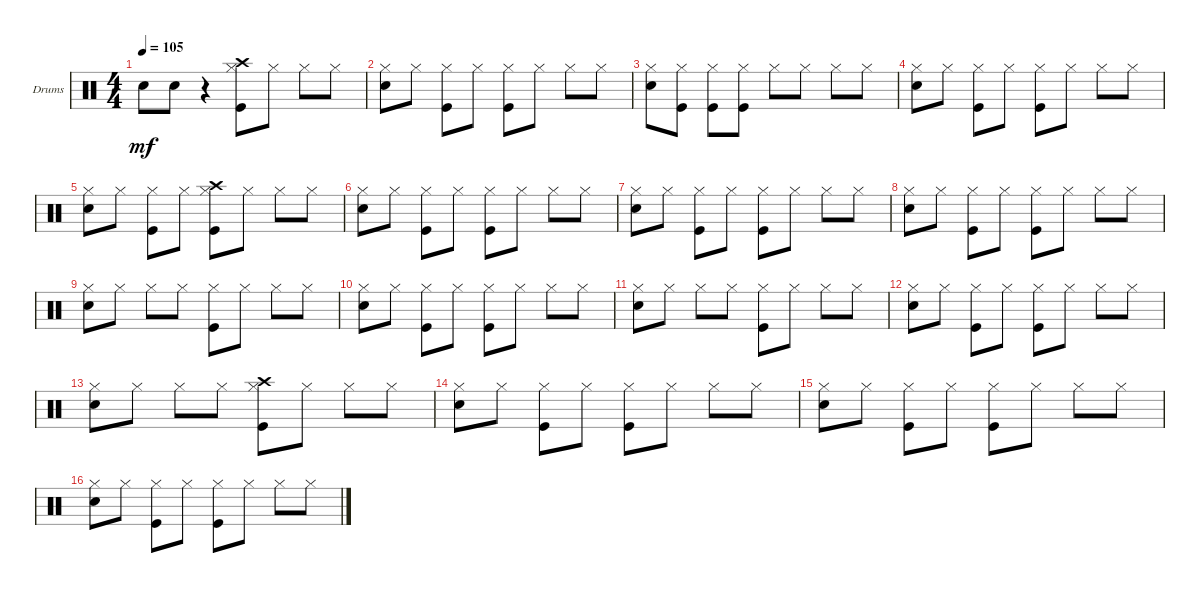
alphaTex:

\defaultSystemsLayout 4
\bracketExtendMode groupsimilarinstruments
\firstSystemTrackNameOrientation horizontal
\otherSystemsTrackNameOrientation horizontal
\track ("Drumkit" "Drums") {instrument percussion}
\staff {score}
\articulation defaults
\ts (4 4)
\tempo 105
\clef neutral
\scale
0.333333
\ks c "Snare (hit) 2".8{dy mf} "Snare (hit) 2".8
r.4 ("Kick (hit)" "Crash high (hit)" "Hi-Hat (closed)").8 "Hi-Hat (closed)".8 "Hi-Hat (closed)".8 "Hi-Hat (closed)".8 |
\scale
0.333333 ("Snare (hit) 2" "Hi-Hat (closed)").8 "Hi-Hat (closed)".8 ("Hi-Hat (closed)" "Kick (hit)").8 "Hi-Hat (closed)".8 ("Hi-Hat (closed)" "Kick (hit)").8 "Hi-Hat (closed)".8 "Hi-Hat (closed)".8 "Hi-Hat (closed)".8 |
\scale
0.333333 ("Hi-Hat (closed)" "Snare (hit) 2").8 ("Hi-Hat (closed)" "Kick (hit)").8 ("Hi-Hat (closed)" "Kick (hit)").8 ("Hi-Hat (closed)" "Kick (hit)").8 "Hi-Hat (closed)".8 "Hi-Hat (closed)".8 "Hi-Hat (closed)".8 "Hi-Hat (closed)".8 |
\scale
0.333333 ("Snare (hit) 2" "Hi-Hat (closed)").8 "Hi-Hat (closed)".8 ("Kick (hit)" "Hi-Hat (closed)").8 "Hi-Hat (closed)".8 ("Kick (hit)" "Hi-Hat (closed)").8 "Hi-Hat (closed)".8 "Hi-Hat (closed)".8 "Hi-Hat (closed)".8 |
\scale
0.333333 ("Snare (hit) 2" "Hi-Hat (closed)").8 "Hi-Hat (closed)".8 ("Hi-Hat (closed)" "Kick (hit)").8 "Hi-Hat (closed)".8 ("Hi-Hat (closed)" "Kick (hit)" "Crash high (hit)").8 "Hi-Hat (closed)".8 "Hi-Hat (closed)".8 "Hi-Hat (closed)".8 |
\scale
0.333333 ("Hi-Hat (closed)" "Snare (hit) 2").8 "Hi-Hat (closed)".8 ("Hi-Hat (closed)" "Kick (hit)").8 "Hi-Hat (closed)".8 ("Kick (hit)" "Hi-Hat (closed)").8 "Hi-Hat (closed)".8 "Hi-Hat (closed)".8 "Hi-Hat (closed)".8 |
\scale
0.333333 ("Snare (hit) 2" "Hi-Hat (closed)").8 "Hi-Hat (closed)".8 ("Kick (hit)" "Hi-Hat (closed)").8 "Hi-Hat (closed)".8 ("Kick (hit)" "Hi-Hat (closed)").8 "Hi-Hat (closed)".8 "Hi-Hat (closed)".8 "Hi-Hat (closed)".8 |
\scale
0.333333 ("Snare (hit) 2" "Hi-Hat (closed)").8 "Hi-Hat (closed)".8 ("Kick (hit)" "Hi-Hat (closed)").8 "Hi-Hat (closed)".8 ("Kick (hit)" "Hi-Hat (closed)").8 "Hi-Hat (closed)".8 "Hi-Hat (closed)".8 "Hi-Hat (closed)".8 |
\scale
0.333333 ("Snare (hit) 2" "Hi-Hat (closed)").8 "Hi-Hat (closed)".8 "Hi-Hat (closed)".8 "Hi-Hat (closed)".8 ("Kick (hit)" "Hi-Hat (closed)").8 "Hi-Hat (closed)".8 "Hi-Hat (closed)".8 "Hi-Hat (closed)".8 |
\scale
0.333333 ("Snare (hit) 2" "Hi-Hat (closed)").8 "Hi-Hat (closed)".8 ("Kick (hit)" "Hi-Hat (closed)").8 "Hi-Hat (closed)".8 ("Kick (hit)" "Hi-Hat (closed)").8 "Hi-Hat (closed)".8 "Hi-Hat (closed)".8 "Hi-Hat (closed)".8 |
\scale
0.333333 ("Snare (hit) 2" "Hi-Hat (closed)").8 "Hi-Hat (closed)".8 "Hi-Hat (closed)".8 "Hi-Hat (closed)".8 ("Kick (hit)" "Hi-Hat (closed)").8 "Hi-Hat (closed)".8 "Hi-Hat (closed)".8 "Hi-Hat (closed)".8 |
\scale
0.333333 ("Snare (hit) 2" "Hi-Hat (closed)").8 "Hi-Hat (closed)".8 ("Kick (hit)" "Hi-Hat (closed)").8 "Hi-Hat (closed)".8 ("Kick (hit)" "Hi-Hat (closed)").8 "Hi-Hat (closed)".8 "Hi-Hat (closed)".8 "Hi-Hat (closed)".8 |
\scale
0.333333 ("Snare (hit) 2" "Hi-Hat (closed)").8 "Hi-Hat (closed)".8 "Hi-Hat (closed)".8 "Hi-Hat (closed)".8 ("Kick (hit)" "Hi-Hat (closed)" "Crash high (hit)").8 "Hi-Hat (closed)".8 "Hi-Hat (closed)".8 "Hi-Hat (closed)".8 |
\scale
0.333333 ("Snare (hit) 2" "Hi-Hat (closed)").8 "Hi-Hat (closed)".8 ("Hi-Hat (closed)" "Kick (hit)").8 "Hi-Hat (closed)".8 ("Hi-Hat (closed)" "Kick (hit)").8 "Hi-Hat (closed)".8 "Hi-Hat (closed)".8 "Hi-Hat (closed)".8 |
\scale
0.333333 ("Hi-Hat (closed)" "Snare (hit) 2").8 "Hi-Hat (closed)".8 ("Hi-Hat (closed)" "Kick (hit)").8 "Hi-Hat (closed)".8 ("Hi-Hat (closed)" "Kick (hit)").8 "Hi-Hat (closed)".8 "Hi-Hat (closed)".8 "Hi-Hat (closed)".8 |
\scale
0.333333 ("Hi-Hat (closed)" "Snare (hit) 2").8 "Hi-Hat (closed)".8 ("Hi-Hat (closed)" "Kick (hit)").8 "Hi-Hat (closed)".8 ("Kick (hit)" "Hi-Hat (closed)").8 "Hi-Hat (closed)".8 "Hi-Hat (closed)".8 "Hi-Hat (closed)".8
